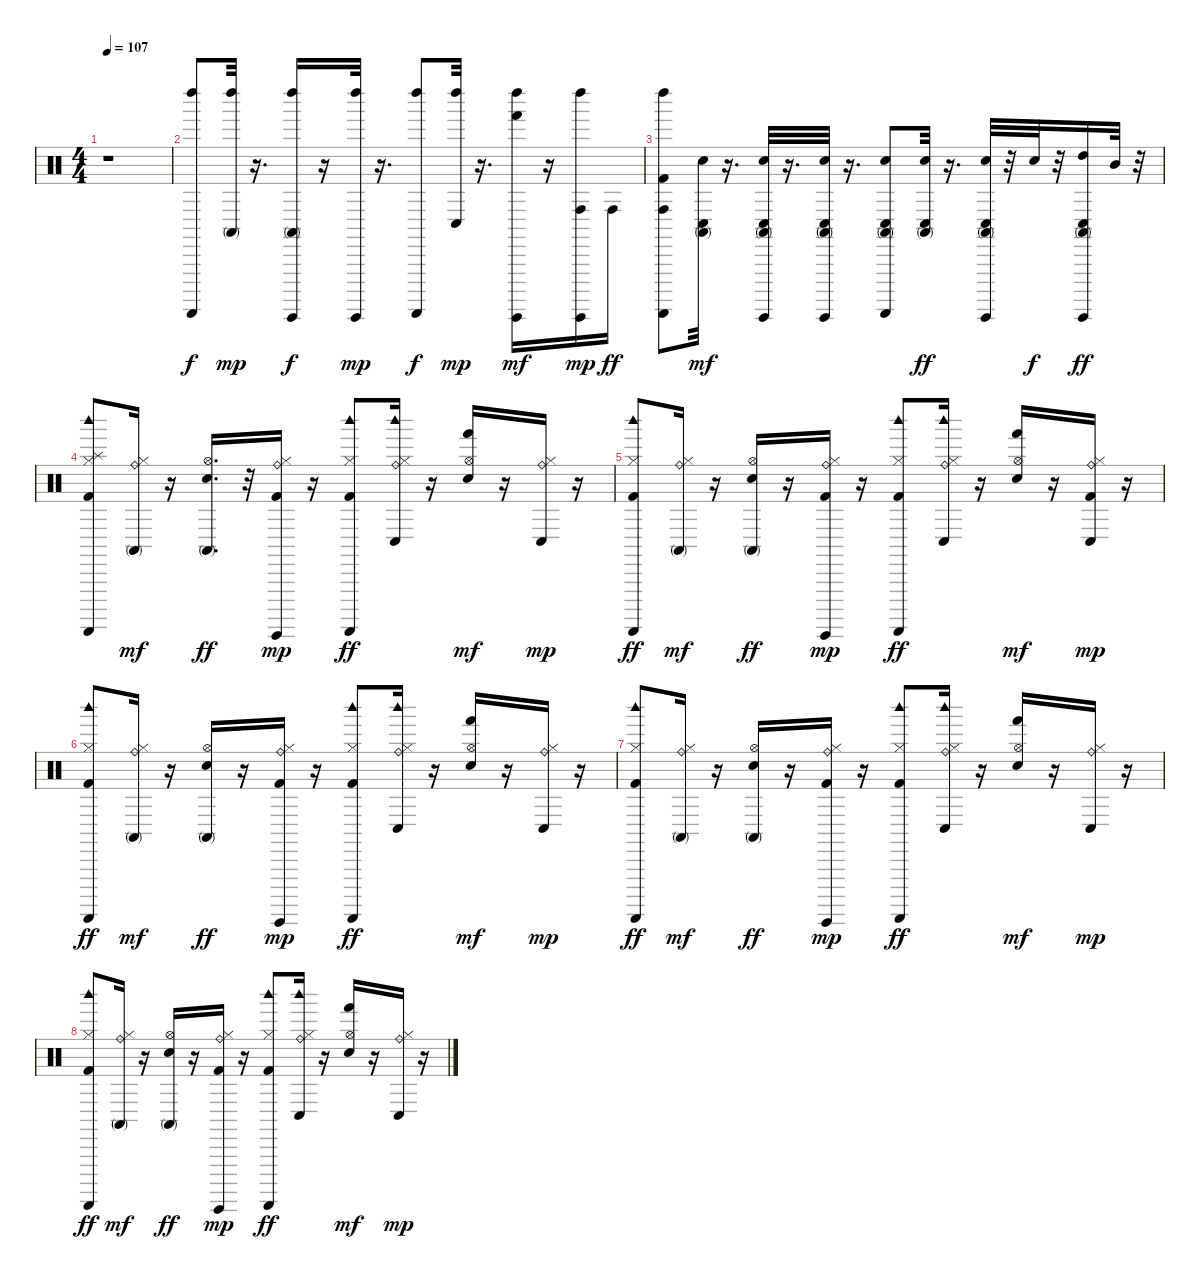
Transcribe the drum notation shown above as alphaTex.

\track "" {instrument percussion}
\staff {score}
\articulation defaults
\ts (4 4)
\tempo 107
\clef neutral
\ks c
r.1{dy fff} |
("Left Maraca (hit)" "Guiro (scrap-return)").8{dy f} ("Conga high (mute)" "Left Maraca (hit)").32{dy mp} r.16{d} ("Conga high (mute)" "Left Maraca (hit)" "Guiro (hit)").16{dy f} r.16 ("Left Maraca (hit)" "Guiro (hit)").32{dy mp} r.16{d} ("Left Maraca (hit)" "Guiro (scrap-return)").8{dy f} ("Conga low (hit)" "Left Maraca (hit)").32{dy mp} r.16{d} ("Hand (hit)" "Left Maraca (hit)" "Guiro (hit)").16{dy mf} r.16 ("Conga high (hit)" "Left Maraca (hit)" "Guiro (hit)").16{dy mp} "Conga high (hit)".16{dy ff} |
("Kick (hit) 2" "Conga high (hit)" "Left Maraca (hit)" "Guiro (scrap-return)").8 ("Electric Snare (hit)" "Conga high (mute)" "Conga low (hit)").32{dy mf} r.16{d} ("Electric Snare (hit)" "Conga high (mute)" "Conga low (hit)" "Guiro (hit)").32 r.16{d} ("Electric Snare (hit)" "Conga high (mute)" "Conga low (hit)" "Guiro (hit)").32 r.16{d} ("Electric Snare (hit)" "Conga high (mute)" "Conga low (hit)" "Guiro (scrap-return)").8 ("Electric Snare (hit)" "Conga high (mute)" "Conga low (hit)").32{dy ff} r.16{d} ("Electric Snare (hit)" "Conga high (mute)" "Conga low (hit)" "Guiro (hit)").32 r.32 "Electric Snare (hit)".32{dy f} r.32 ("High Tom (hit)" "Conga high (mute)" "Conga low (hit)" "Guiro (hit)").16{dy ff} "Mid Tom (hit)".32 r.32 |
("Kick (hit) 2" "Hi-Hat (closed)" "Splash (hit)" "Guiro (scrap-return)" "Woodblock high (hit)").8 ("Hi-Hat (closed)" "Ride (bell)" "Conga high (mute)").16{dy mf} r.16 ("Electric Snare (hit)" "Conga high (mute)" "Hi-Hat (open)").16{d dy ff} r.32 ("Kick (hit) 2" "Hi-Hat (closed)" "Ride (bell)" "Guiro (hit)").16{dy mp} r.16 ("Kick (hit) 2" "Hi-Hat (closed)" "Guiro (scrap-return)" "Woodblock high (hit)").8{dy ff} ("Hi-Hat (closed)" "Ride (bell)" "Conga low (hit)" "Woodblock high (hit)").16 r.16 ("Electric Snare (hit)" "Hi-Hat (open)" "Hand (hit)").16{dy mf} r.16 ("Ride (bell)" "Conga low (hit)" "Hi-Hat (closed)").16{dy mp} r.16 |
("Kick (hit) 2" "Hi-Hat (closed)" "Guiro (scrap-return)" "Woodblock high (hit)").8{dy ff} ("Hi-Hat (closed)" "Ride (bell)" "Conga high (mute)").16{dy mf} r.16 ("Electric Snare (hit)" "Hi-Hat (open)" "Conga high (mute)").16{dy ff} r.16 ("Kick (hit) 2" "Hi-Hat (closed)" "Ride (bell)" "Guiro (hit)").16{dy mp} r.16 ("Kick (hit) 2" "Hi-Hat (closed)" "Guiro (scrap-return)" "Woodblock high (hit)").8{dy ff} ("Hi-Hat (closed)" "Ride (bell)" "Conga low (hit)" "Woodblock high (hit)").16 r.16 ("Electric Snare (hit)" "Hi-Hat (open)" "Hand (hit)").16{dy mf} r.16 ("Kick (hit) 2" "Hi-Hat (closed)" "Ride (bell)" "Conga low (hit)").16{dy mp} r.16 |
("Kick (hit) 2" "Hi-Hat (closed)" "Guiro (scrap-return)" "Woodblock high (hit)").8{dy ff} ("Hi-Hat (closed)" "Ride (bell)" "Conga high (mute)").16{dy mf} r.16 ("Electric Snare (hit)" "Conga high (mute)" "Hi-Hat (open)").16{dy ff} r.16 ("Kick (hit) 2" "Hi-Hat (closed)" "Ride (bell)" "Guiro (hit)").16{dy mp} r.16 ("Kick (hit) 2" "Hi-Hat (closed)" "Guiro (scrap-return)" "Woodblock high (hit)").8{dy ff} ("Ride (bell)" "Woodblock high (hit)" "Hi-Hat (closed)" "Conga low (hit)").16 r.16 ("Electric Snare (hit)" "Hi-Hat (open)" "Hand (hit)").16{dy mf} r.16 ("Hi-Hat (closed)" "Ride (bell)" "Conga low (hit)").16{dy mp} r.16 |
("Kick (hit) 2" "Hi-Hat (closed)" "Guiro (scrap-return)" "Woodblock high (hit)").8{dy ff} ("Hi-Hat (closed)" "Ride (bell)" "Conga high (mute)").16{dy mf} r.16 ("Electric Snare (hit)" "Hi-Hat (open)" "Conga high (mute)").16{dy ff} r.16 ("Kick (hit) 2" "Hi-Hat (closed)" "Ride (bell)" "Guiro (hit)").16{dy mp} r.16 ("Kick (hit) 2" "Hi-Hat (closed)" "Guiro (scrap-return)" "Woodblock high (hit)").8{dy ff} ("Hi-Hat (closed)" "Ride (bell)" "Conga low (hit)" "Woodblock high (hit)").16 r.16 ("Electric Snare (hit)" "Hi-Hat (open)" "Hand (hit)").16{dy mf} r.16 ("Hi-Hat (closed)" "Ride (bell)" "Conga low (hit)").16{dy mp} r.16 |
("Kick (hit) 2" "Hi-Hat (closed)" "Guiro (scrap-return)" "Woodblock high (hit)").8{dy ff} ("Hi-Hat (closed)" "Ride (bell)" "Conga high (mute)").16{dy mf} r.16 ("Electric Snare (hit)" "Hi-Hat (open)" "Conga high (mute)").16{dy ff} r.16 ("Kick (hit) 2" "Hi-Hat (closed)" "Ride (bell)" "Guiro (hit)").16{dy mp} r.16 ("Kick (hit) 2" "Hi-Hat (closed)" "Guiro (scrap-return)" "Woodblock high (hit)").8{dy ff} ("Hi-Hat (closed)" "Ride (bell)" "Conga low (hit)" "Woodblock high (hit)").16 r.16 ("Electric Snare (hit)" "Hi-Hat (open)" "Hand (hit)").16{dy mf} r.16 ("Hi-Hat (closed)" "Ride (bell)" "Conga low (hit)").16{dy mp} r.16
